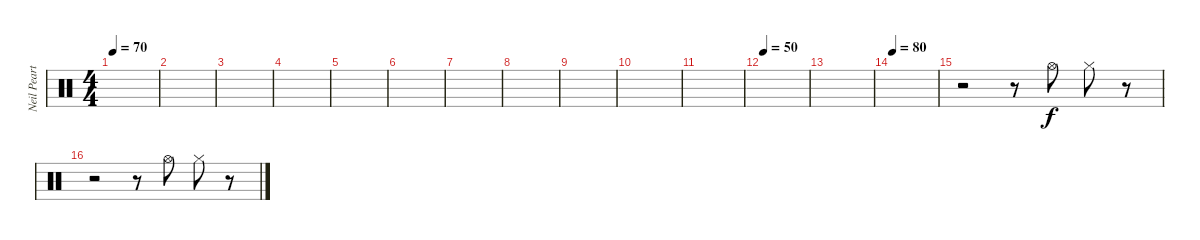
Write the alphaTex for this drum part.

\track ("Neil Peart" "Neil Peart") {instrument percussion}
\staff {score}
\articulation defaults
\ts (4 4)
\tempo 70
\clef neutral
\ks c
|
|
|
|
|
|
|
|
|
|
|
\tempo 50
|
|
\tempo 80
|
r.2 r.8 "Hi-Hat (open)".8 "Hi-Hat (closed)".8 r.8 |
r.2 r.8 "Hi-Hat (open)".8 "Hi-Hat (closed)".8 r.8
